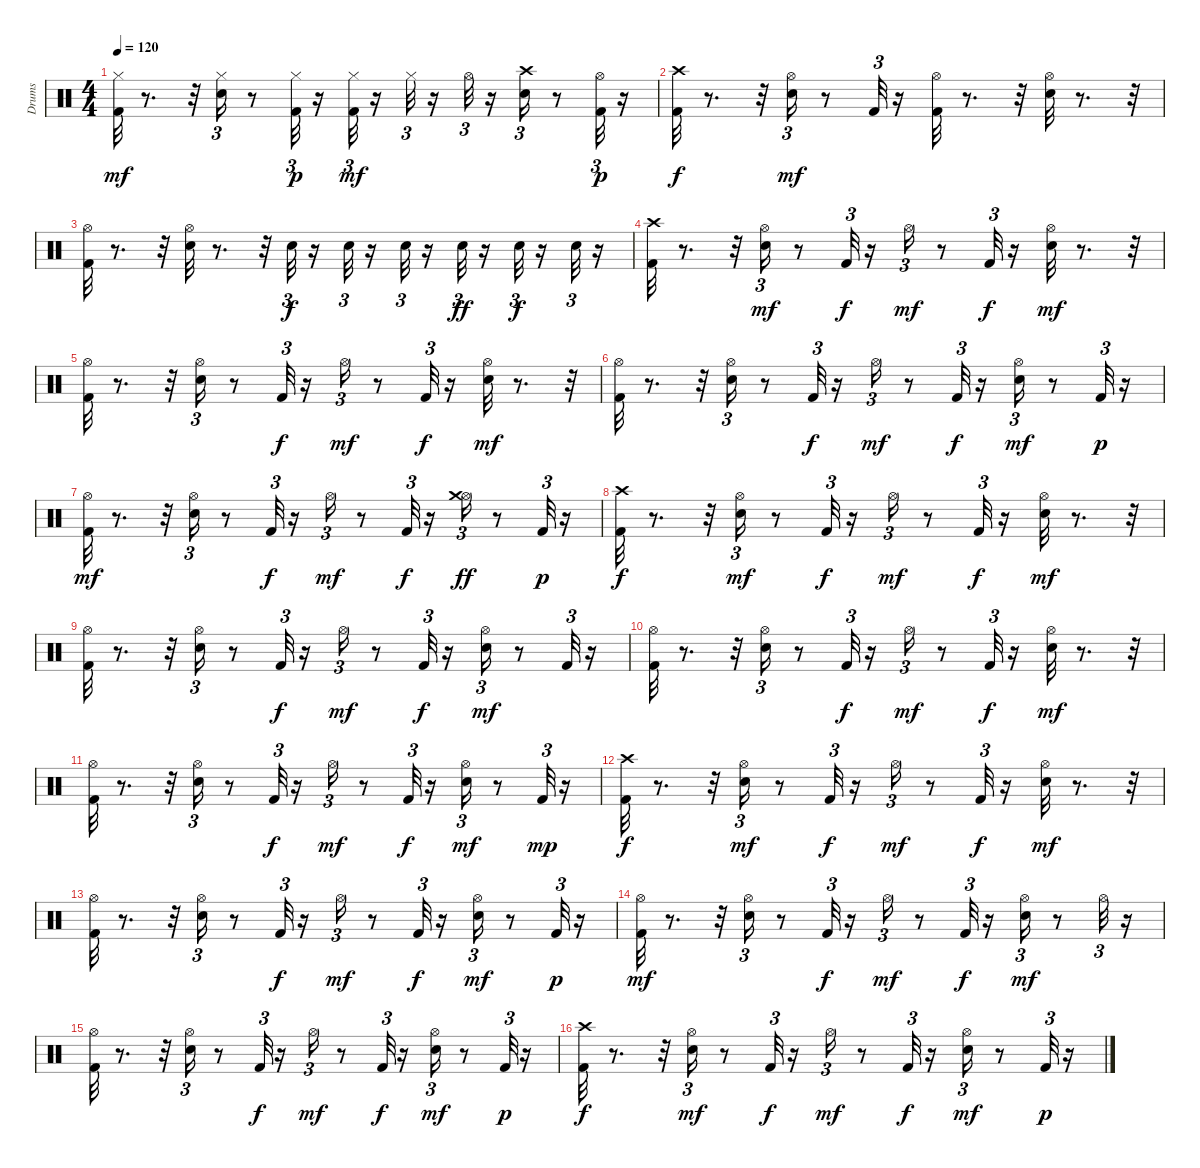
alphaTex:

\track ("Drums" "Drums") {instrument percussion}
\staff {score}
\articulation defaults
\ts (4 4)
\tempo 120
\clef neutral
\ks c
("Kick (hit) 2" "Hi-Hat (closed)").32{dy mf} r.8{d} r.32 ("Electric Snare (hit)" "Hi-Hat (closed)").16{tu (3 2)} r.8 ("Kick (hit) 2" "Hi-Hat (closed)").32{tu (3 2) dy p} r.16 ("Kick (hit) 2" "Hi-Hat (closed)").32{tu (3 2) dy mf} r.16 "Hi-Hat (closed)".32{tu (3 2)} r.16 "Hi-Hat (open)".32{tu (3 2)} r.16 ("Electric Snare (hit)" "Crash high (hit)").16{tu (3 2)} r.8 ("Kick (hit) 2" "Hi-Hat (open)").32{tu (3 2) dy p} r.16 |
("Kick (hit) 2" "Crash high (hit)").32{dy f} r.8{d} r.32 ("Electric Snare (hit)" "Hi-Hat (open)").16{tu (3 2) dy mf} r.8 "Kick (hit) 2".32{tu (3 2)} r.16 ("Kick (hit) 2" "Hi-Hat (open)").32 r.8{d} r.32 ("Electric Snare (hit)" "Hi-Hat (open)").32 r.8{d} r.32 |
("Kick (hit) 2" "Hi-Hat (open)").32 r.8{d} r.32 ("Electric Snare (hit)" "Hi-Hat (open)").32 r.8{d} r.32 "Electric Snare (hit)".32{tu (3 2) dy f} r.16 "Electric Snare (hit)".32{tu (3 2)} r.16 "Electric Snare (hit)".32{tu (3 2)} r.16 "Electric Snare (hit)".32{tu (3 2) dy ff} r.16 "Electric Snare (hit)".32{tu (3 2) dy f} r.16 "Electric Snare (hit)".32{tu (3 2)} r.16 |
("Kick (hit) 2" "Crash high (hit)").32 r.8{d} r.32 ("Electric Snare (hit)" "Hi-Hat (open)").16{tu (3 2) dy mf} r.8 "Kick (hit) 2".32{tu (3 2) dy f} r.16 "Hi-Hat (open)".16{tu (3 2) dy mf} r.8 "Kick (hit) 2".32{tu (3 2) dy f} r.16 ("Electric Snare (hit)" "Hi-Hat (open)").32{dy mf} r.8{d} r.32 |
("Kick (hit) 2" "Hi-Hat (open)").32 r.8{d} r.32 ("Electric Snare (hit)" "Hi-Hat (open)").16{tu (3 2)} r.8 "Kick (hit) 2".32{tu (3 2) dy f} r.16 "Hi-Hat (open)".16{tu (3 2) dy mf} r.8 "Kick (hit) 2".32{tu (3 2) dy f} r.16 ("Electric Snare (hit)" "Hi-Hat (open)").32{dy mf} r.8{d} r.32 |
("Kick (hit) 2" "Hi-Hat (open)").32 r.8{d} r.32 ("Electric Snare (hit)" "Hi-Hat (open)").16{tu (3 2)} r.8 "Kick (hit) 2".32{tu (3 2) dy f} r.16 "Hi-Hat (open)".16{tu (3 2) dy mf} r.8 "Kick (hit) 2".32{tu (3 2) dy f} r.16 ("Electric Snare (hit)" "Hi-Hat (open)").16{tu (3 2) dy mf} r.8 "Kick (hit) 2".32{tu (3 2) dy p} r.16 |
("Kick (hit) 2" "Hi-Hat (open)").32{dy mf} r.8{d} r.32 ("Electric Snare (hit)" "Hi-Hat (open)").16{tu (3 2)} r.8 "Kick (hit) 2".32{tu (3 2) dy f} r.16 "Hi-Hat (open)".16{tu (3 2) dy mf} r.8 "Kick (hit) 2".32{tu (3 2) dy f} r.16 ("Hi-Hat (open)" "Crash medium (hit)").16{tu (3 2) dy ff} r.8 "Kick (hit) 2".32{tu (3 2) dy p} r.16 |
("Kick (hit) 2" "Crash high (hit)").32{dy f} r.8{d} r.32 ("Electric Snare (hit)" "Hi-Hat (open)").16{tu (3 2) dy mf} r.8 "Kick (hit) 2".32{tu (3 2) dy f} r.16 "Hi-Hat (open)".16{tu (3 2) dy mf} r.8 "Kick (hit) 2".32{tu (3 2) dy f} r.16 ("Electric Snare (hit)" "Hi-Hat (open)").32{dy mf} r.8{d} r.32 |
("Kick (hit) 2" "Hi-Hat (open)").32 r.8{d} r.32 ("Electric Snare (hit)" "Hi-Hat (open)").16{tu (3 2)} r.8 "Kick (hit) 2".32{tu (3 2) dy f} r.16 "Hi-Hat (open)".16{tu (3 2) dy mf} r.8 "Kick (hit) 2".32{tu (3 2) dy f} r.16 ("Electric Snare (hit)" "Hi-Hat (open)").16{tu (3 2) dy mf} r.8 "Kick (hit) 2".32{tu (3 2)} r.16 |
("Kick (hit) 2" "Hi-Hat (open)").32 r.8{d} r.32 ("Electric Snare (hit)" "Hi-Hat (open)").16{tu (3 2)} r.8 "Kick (hit) 2".32{tu (3 2) dy f} r.16 "Hi-Hat (open)".16{tu (3 2) dy mf} r.8 "Kick (hit) 2".32{tu (3 2) dy f} r.16 ("Electric Snare (hit)" "Hi-Hat (open)").32{dy mf} r.8{d} r.32 |
("Kick (hit) 2" "Hi-Hat (open)").32 r.8{d} r.32 ("Electric Snare (hit)" "Hi-Hat (open)").16{tu (3 2)} r.8 "Kick (hit) 2".32{tu (3 2) dy f} r.16 "Hi-Hat (open)".16{tu (3 2) dy mf} r.8 "Kick (hit) 2".32{tu (3 2) dy f} r.16 ("Electric Snare (hit)" "Hi-Hat (open)").16{tu (3 2) dy mf} r.8 "Kick (hit) 2".32{tu (3 2) dy mp} r.16 |
("Kick (hit) 2" "Crash high (hit)").32{dy f} r.8{d} r.32 ("Electric Snare (hit)" "Hi-Hat (open)").16{tu (3 2) dy mf} r.8 "Kick (hit) 2".32{tu (3 2) dy f} r.16 "Hi-Hat (open)".16{tu (3 2) dy mf} r.8 "Kick (hit) 2".32{tu (3 2) dy f} r.16 ("Electric Snare (hit)" "Hi-Hat (open)").32{dy mf} r.8{d} r.32 |
("Kick (hit) 2" "Hi-Hat (open)").32 r.8{d} r.32 ("Electric Snare (hit)" "Hi-Hat (open)").16{tu (3 2)} r.8 "Kick (hit) 2".32{tu (3 2) dy f} r.16 "Hi-Hat (open)".16{tu (3 2) dy mf} r.8 "Kick (hit) 2".32{tu (3 2) dy f} r.16 ("Electric Snare (hit)" "Hi-Hat (open)").16{tu (3 2) dy mf} r.8 "Kick (hit) 2".32{tu (3 2) dy p} r.16 |
("Kick (hit) 2" "Hi-Hat (open)").32{dy mf} r.8{d} r.32 ("Electric Snare (hit)" "Hi-Hat (open)").16{tu (3 2)} r.8 "Kick (hit) 2".32{tu (3 2) dy f} r.16 "Hi-Hat (open)".16{tu (3 2) dy mf} r.8 "Kick (hit) 2".32{tu (3 2) dy f} r.16 ("Electric Snare (hit)" "Hi-Hat (open)").16{tu (3 2) dy mf} r.8 "Hi-Hat (open)".32{tu (3 2)} r.16 |
("Kick (hit) 2" "Hi-Hat (open)").32 r.8{d} r.32 ("Electric Snare (hit)" "Hi-Hat (open)").16{tu (3 2)} r.8 "Kick (hit) 2".32{tu (3 2) dy f} r.16 "Hi-Hat (open)".16{tu (3 2) dy mf} r.8 "Kick (hit) 2".32{tu (3 2) dy f} r.16 ("Electric Snare (hit)" "Hi-Hat (open)").16{tu (3 2) dy mf} r.8 "Kick (hit) 2".32{tu (3 2) dy p} r.16 |
("Kick (hit) 2" "Crash high (hit)").32{dy f} r.8{d} r.32 ("Electric Snare (hit)" "Hi-Hat (open)").16{tu (3 2) dy mf} r.8 "Kick (hit) 2".32{tu (3 2) dy f} r.16 "Hi-Hat (open)".16{tu (3 2) dy mf} r.8 "Kick (hit) 2".32{tu (3 2) dy f} r.16 ("Electric Snare (hit)" "Hi-Hat (open)").16{tu (3 2) dy mf} r.8 "Kick (hit) 2".32{tu (3 2) dy p} r.16
